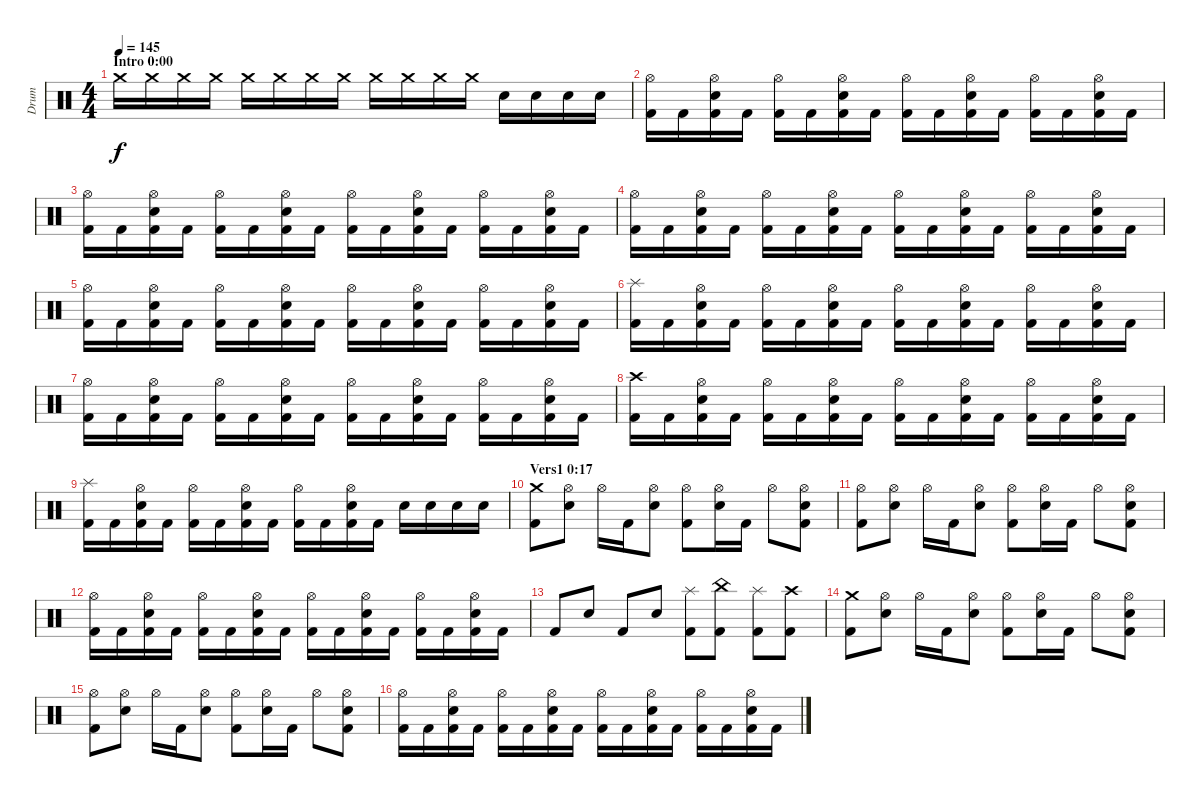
\track ("Drum" "Drum") {instrument percussion}
\staff {score}
\articulation defaults
\ts (4 4)
\section ("" "Intro 0:00")
\tempo 145
\clef neutral
\ks c "Crash medium (hit)".16{dy f volume 1} "Crash medium (hit)".16{volume 2} "Crash medium (hit)".16{volume 4} "Crash medium (hit)".16{volume 6} "Crash medium (hit)".16{volume 8} "Crash medium (hit)".16{volume 9} "Crash medium (hit)".16{volume 10} "Crash medium (hit)".16{volume 11} "Crash medium (hit)".16{volume 12} "Crash medium (hit)".16{volume 13} "Crash medium (hit)".16{volume 14} "Crash medium (hit)".16{volume 15} "Snare (hit) 2".16 "Snare (hit) 2".16 "Snare (hit) 2".16 "Snare (hit) 2".16
|
("Hi-Hat (open)" "Kick (hit) 2").16 "Kick (hit) 2".16 ("Hi-Hat (open)" "Snare (hit) 2" "Kick (hit) 2").16 "Kick (hit) 2".16 ("Hi-Hat (open)" "Kick (hit) 2").16 "Kick (hit) 2".16 ("Hi-Hat (open)" "Snare (hit) 2" "Kick (hit) 2").16 "Kick (hit) 2".16 ("Hi-Hat (open)" "Kick (hit) 2").16 "Kick (hit) 2".16 ("Hi-Hat (open)" "Snare (hit) 2" "Kick (hit) 2").16 "Kick (hit) 2".16 ("Hi-Hat (open)" "Kick (hit) 2").16 "Kick (hit) 2".16 ("Hi-Hat (open)" "Snare (hit) 2" "Kick (hit) 2").16 "Kick (hit) 2".16 |
("Hi-Hat (open)" "Kick (hit) 2").16 "Kick (hit) 2".16 ("Hi-Hat (open)" "Snare (hit) 2" "Kick (hit) 2").16 "Kick (hit) 2".16 ("Hi-Hat (open)" "Kick (hit) 2").16 "Kick (hit) 2".16 ("Hi-Hat (open)" "Snare (hit) 2" "Kick (hit) 2").16 "Kick (hit) 2".16 ("Hi-Hat (open)" "Kick (hit) 2").16 "Kick (hit) 2".16 ("Hi-Hat (open)" "Snare (hit) 2" "Kick (hit) 2").16 "Kick (hit) 2".16 ("Hi-Hat (open)" "Kick (hit) 2").16 "Kick (hit) 2".16 ("Hi-Hat (open)" "Snare (hit) 2" "Kick (hit) 2").16 "Kick (hit) 2".16 |
("Hi-Hat (open)" "Kick (hit) 2").16 "Kick (hit) 2".16 ("Hi-Hat (open)" "Snare (hit) 2" "Kick (hit) 2").16 "Kick (hit) 2".16 ("Hi-Hat (open)" "Kick (hit) 2").16 "Kick (hit) 2".16 ("Hi-Hat (open)" "Snare (hit) 2" "Kick (hit) 2").16 "Kick (hit) 2".16 ("Hi-Hat (open)" "Kick (hit) 2").16 "Kick (hit) 2".16 ("Hi-Hat (open)" "Snare (hit) 2" "Kick (hit) 2").16 "Kick (hit) 2".16 ("Hi-Hat (open)" "Kick (hit) 2").16 "Kick (hit) 2".16 ("Hi-Hat (open)" "Snare (hit) 2" "Kick (hit) 2").16 "Kick (hit) 2".16 |
("Hi-Hat (open)" "Kick (hit) 2").16 "Kick (hit) 2".16 ("Hi-Hat (open)" "Snare (hit) 2" "Kick (hit) 2").16 "Kick (hit) 2".16 ("Hi-Hat (open)" "Kick (hit) 2").16 "Kick (hit) 2".16 ("Hi-Hat (open)" "Snare (hit) 2" "Kick (hit) 2").16 "Kick (hit) 2".16 ("Hi-Hat (open)" "Kick (hit) 2").16 "Kick (hit) 2".16 ("Hi-Hat (open)" "Snare (hit) 2" "Kick (hit) 2").16 "Kick (hit) 2".16 ("Hi-Hat (open)" "Kick (hit) 2").16 "Kick (hit) 2".16 ("Hi-Hat (open)" "Snare (hit) 2" "Kick (hit) 2").16 "Kick (hit) 2".16 |
("Splash (hit)" "Kick (hit) 2").16 "Kick (hit) 2".16 ("Hi-Hat (open)" "Snare (hit) 2" "Kick (hit) 2").16 "Kick (hit) 2".16 ("Hi-Hat (open)" "Kick (hit) 2").16 "Kick (hit) 2".16 ("Hi-Hat (open)" "Snare (hit) 2" "Kick (hit) 2").16 "Kick (hit) 2".16 ("Hi-Hat (open)" "Kick (hit) 2").16 "Kick (hit) 2".16 ("Hi-Hat (open)" "Snare (hit) 2" "Kick (hit) 2").16 "Kick (hit) 2".16 ("Hi-Hat (open)" "Kick (hit) 2").16 "Kick (hit) 2".16 ("Hi-Hat (open)" "Snare (hit) 2" "Kick (hit) 2").16 "Kick (hit) 2".16 |
("Hi-Hat (open)" "Kick (hit) 2").16 "Kick (hit) 2".16 ("Hi-Hat (open)" "Snare (hit) 2" "Kick (hit) 2").16 "Kick (hit) 2".16 ("Hi-Hat (open)" "Kick (hit) 2").16 "Kick (hit) 2".16 ("Hi-Hat (open)" "Snare (hit) 2" "Kick (hit) 2").16 "Kick (hit) 2".16 ("Hi-Hat (open)" "Kick (hit) 2").16 "Kick (hit) 2".16 ("Hi-Hat (open)" "Snare (hit) 2" "Kick (hit) 2").16 "Kick (hit) 2".16 ("Hi-Hat (open)" "Kick (hit) 2").16 "Kick (hit) 2".16 ("Hi-Hat (open)" "Snare (hit) 2" "Kick (hit) 2").16 "Kick (hit) 2".16 |
("Crash high (hit)" "Kick (hit) 2").16 "Kick (hit) 2".16 ("Hi-Hat (open)" "Snare (hit) 2" "Kick (hit) 2").16 "Kick (hit) 2".16 ("Hi-Hat (open)" "Kick (hit) 2").16 "Kick (hit) 2".16 ("Hi-Hat (open)" "Snare (hit) 2" "Kick (hit) 2").16 "Kick (hit) 2".16 ("Hi-Hat (open)" "Kick (hit) 2").16 "Kick (hit) 2".16 ("Hi-Hat (open)" "Snare (hit) 2" "Kick (hit) 2").16 "Kick (hit) 2".16 ("Hi-Hat (open)" "Kick (hit) 2").16 "Kick (hit) 2".16 ("Hi-Hat (open)" "Snare (hit) 2" "Kick (hit) 2").16 "Kick (hit) 2".16 |
("Splash (hit)" "Kick (hit) 2").16 "Kick (hit) 2".16 ("Hi-Hat (open)" "Snare (hit) 2" "Kick (hit) 2").16 "Kick (hit) 2".16 ("Hi-Hat (open)" "Kick (hit) 2").16 "Kick (hit) 2".16 ("Hi-Hat (open)" "Snare (hit) 2" "Kick (hit) 2").16 "Kick (hit) 2".16 ("Hi-Hat (open)" "Kick (hit) 2").16 "Kick (hit) 2".16 ("Hi-Hat (open)" "Snare (hit) 2" "Kick (hit) 2").16 "Kick (hit) 2".16 "Snare (hit) 2".16 "Snare (hit) 2".16 "Snare (hit) 2".16 "Snare (hit) 2".16 |
\section ("" "Vers1 0:17")
("Crash medium (hit)" "Kick (hit) 2").8 ("Hi-Hat (open)" "Snare (hit) 2").8 "Hi-Hat (open)".16 "Kick (hit) 2".16 ("Hi-Hat (open)" "Snare (hit) 2").8 ("Hi-Hat (open)" "Kick (hit) 2").8 ("Hi-Hat (open)" "Snare (hit) 2").16 "Kick (hit) 2".16 "Hi-Hat (open)".8 ("Hi-Hat (open)" "Snare (hit) 2" "Kick (hit) 2").8 |
("Hi-Hat (open)" "Kick (hit) 2").8 ("Hi-Hat (open)" "Snare (hit) 2").8 "Hi-Hat (open)".16 "Kick (hit) 2".16 ("Hi-Hat (open)" "Snare (hit) 2").8 ("Hi-Hat (open)" "Kick (hit) 2").8 ("Hi-Hat (open)" "Snare (hit) 2").16 "Kick (hit) 2".16 "Hi-Hat (open)".8 ("Hi-Hat (open)" "Snare (hit) 2" "Kick (hit) 2").8 |
("Hi-Hat (open)" "Kick (hit) 2").16 "Kick (hit) 2".16 ("Hi-Hat (open)" "Snare (hit) 2" "Kick (hit) 2").16 "Kick (hit) 2".16 ("Hi-Hat (open)" "Kick (hit) 2").16 "Kick (hit) 2".16 ("Hi-Hat (open)" "Snare (hit) 2" "Kick (hit) 2").16 "Kick (hit) 2".16 ("Hi-Hat (open)" "Kick (hit) 2").16 "Kick (hit) 2".16 ("Hi-Hat (open)" "Snare (hit) 2" "Kick (hit) 2").16 "Kick (hit) 2".16 ("Hi-Hat (open)" "Kick (hit) 2").16 "Kick (hit) 2".16 ("Hi-Hat (open)" "Snare (hit) 2" "Kick (hit) 2").16 "Kick (hit) 2".16 |
"Kick (hit) 2".8 "Snare (hit) 2".8 "Kick (hit) 2".8 "Snare (hit) 2".8 ("Splash (hit)" "Kick (hit) 2").8 ("China (hit)" "Kick (hit) 2").8 ("Splash (hit)" "Kick (hit) 2").8 ("Crash high (hit)" "Kick (hit) 2").8 |
("Crash medium (hit)" "Kick (hit) 2").8 ("Hi-Hat (open)" "Snare (hit) 2").8 "Hi-Hat (open)".16 "Kick (hit) 2".16 ("Hi-Hat (open)" "Snare (hit) 2").8 ("Hi-Hat (open)" "Kick (hit) 2").8 ("Hi-Hat (open)" "Snare (hit) 2").16 "Kick (hit) 2".16 "Hi-Hat (open)".8 ("Hi-Hat (open)" "Snare (hit) 2" "Kick (hit) 2").8 |
("Hi-Hat (open)" "Kick (hit) 2").8 ("Hi-Hat (open)" "Snare (hit) 2").8 "Hi-Hat (open)".16 "Kick (hit) 2".16 ("Hi-Hat (open)" "Snare (hit) 2").8 ("Hi-Hat (open)" "Kick (hit) 2").8 ("Hi-Hat (open)" "Snare (hit) 2").16 "Kick (hit) 2".16 "Hi-Hat (open)".8 ("Hi-Hat (open)" "Snare (hit) 2" "Kick (hit) 2").8 |
("Hi-Hat (open)" "Kick (hit) 2").16 "Kick (hit) 2".16 ("Hi-Hat (open)" "Snare (hit) 2" "Kick (hit) 2").16 "Kick (hit) 2".16 ("Hi-Hat (open)" "Kick (hit) 2").16 "Kick (hit) 2".16 ("Hi-Hat (open)" "Snare (hit) 2" "Kick (hit) 2").16 "Kick (hit) 2".16 ("Hi-Hat (open)" "Kick (hit) 2").16 "Kick (hit) 2".16 ("Hi-Hat (open)" "Snare (hit) 2" "Kick (hit) 2").16 "Kick (hit) 2".16 ("Hi-Hat (open)" "Kick (hit) 2").16 "Kick (hit) 2".16 ("Hi-Hat (open)" "Snare (hit) 2" "Kick (hit) 2").16 "Kick (hit) 2".16
